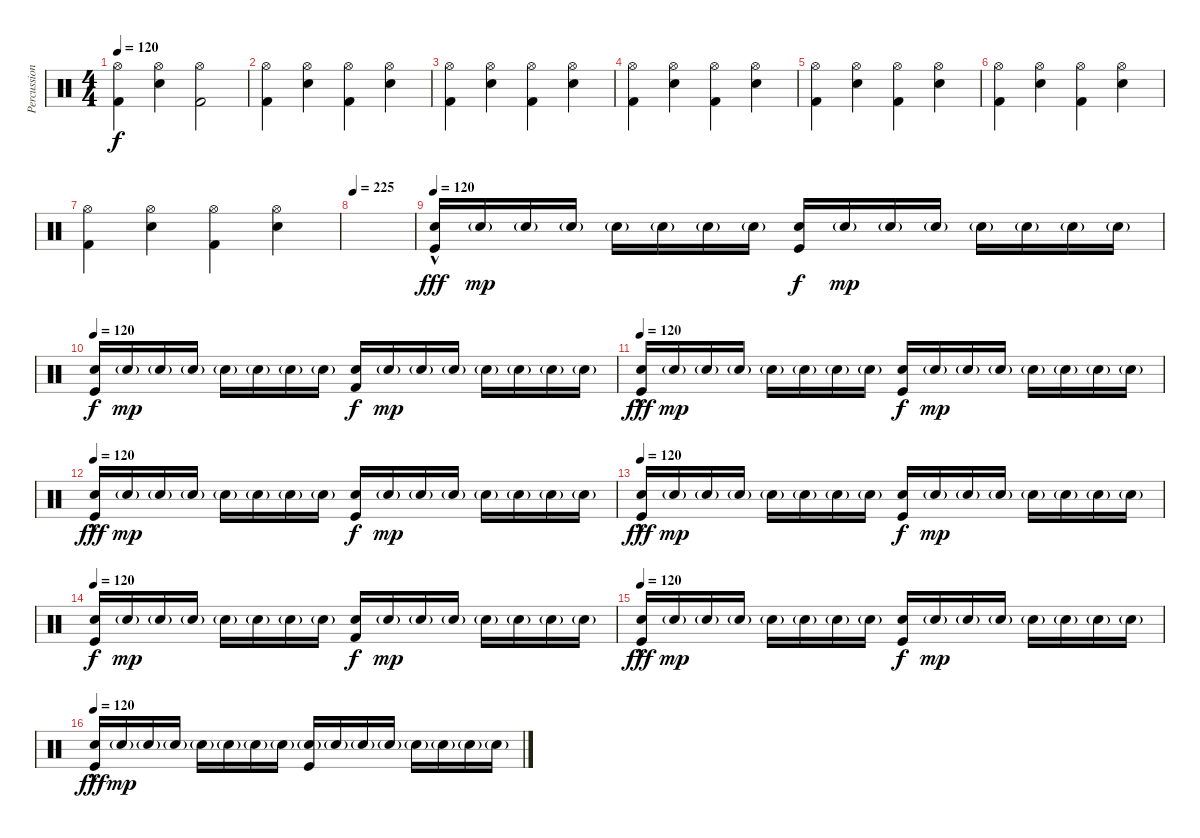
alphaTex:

\track ("Percussion" "Percussion") {instrument percussion}
\staff {score}
\articulation defaults
\ts (4 4)
\tempo 120
\clef neutral
\ks c
("Kick (hit) 2" "Hi-Hat (open)").4{dy f} ("Electric Snare (hit)" "Hi-Hat (open)").4 ("Kick (hit) 2" "Hi-Hat (open)").2 |
("Kick (hit) 2" "Hi-Hat (open)").4 ("Electric Snare (hit)" "Hi-Hat (open)").4 ("Kick (hit) 2" "Hi-Hat (open)").4 ("Electric Snare (hit)" "Hi-Hat (open)").4 |
("Kick (hit) 2" "Hi-Hat (open)").4 ("Electric Snare (hit)" "Hi-Hat (open)").4 ("Kick (hit) 2" "Hi-Hat (open)").4 ("Electric Snare (hit)" "Hi-Hat (open)").4 |
("Kick (hit) 2" "Hi-Hat (open)").4 ("Electric Snare (hit)" "Hi-Hat (open)").4 ("Kick (hit) 2" "Hi-Hat (open)").4 ("Electric Snare (hit)" "Hi-Hat (open)").4 |
("Kick (hit) 2" "Hi-Hat (open)").4 ("Electric Snare (hit)" "Hi-Hat (open)").4 ("Kick (hit) 2" "Hi-Hat (open)").4 ("Electric Snare (hit)" "Hi-Hat (open)").4 |
("Kick (hit) 2" "Hi-Hat (open)").4 ("Electric Snare (hit)" "Hi-Hat (open)").4 ("Kick (hit) 2" "Hi-Hat (open)").4 ("Electric Snare (hit)" "Hi-Hat (open)").4 |
("Kick (hit) 2" "Hi-Hat (open)").4 ("Electric Snare (hit)" "Hi-Hat (open)").4 ("Kick (hit) 2" "Hi-Hat (open)").4 ("Electric Snare (hit)" "Hi-Hat (open)").4 |
\tempo 225
|
\tempo 120
("Electric Snare (hit)"{hac} "Kick (hit)").16{dy fff} "Electric Snare (hit)"{g}.16{dy mp} "Electric Snare (hit)"{g}.16 "Electric Snare (hit)"{g}.16 "Electric Snare (hit)"{g}.16 "Electric Snare (hit)"{g}.16 "Electric Snare (hit)"{g}.16 "Electric Snare (hit)"{g}.16 ("Electric Snare (hit)" "Kick (hit)").16{dy f} "Electric Snare (hit)"{g}.16{dy mp} "Electric Snare (hit)"{g}.16 "Electric Snare (hit)"{g}.16 "Electric Snare (hit)"{g}.16 "Electric Snare (hit)"{g}.16 "Electric Snare (hit)"{g}.16 "Electric Snare (hit)"{g}.16 |
\tempo 120
("Electric Snare (hit)" "Kick (hit)").16{dy f} "Electric Snare (hit)"{g}.16{dy mp} "Electric Snare (hit)"{g}.16 "Electric Snare (hit)"{g}.16 "Electric Snare (hit)"{g}.16 "Electric Snare (hit)"{g}.16 "Electric Snare (hit)"{g}.16 "Electric Snare (hit)"{g}.16 ("Electric Snare (hit)" "Kick (hit) 2").16{dy f} "Electric Snare (hit)"{g}.16{dy mp} "Electric Snare (hit)"{g}.16 "Electric Snare (hit)"{g}.16 "Electric Snare (hit)"{g}.16 "Electric Snare (hit)"{g}.16 "Electric Snare (hit)"{g}.16 "Electric Snare (hit)"{g}.16 |
\tempo 120
("Electric Snare (hit)"{hac} "Kick (hit)").16{dy fff} "Electric Snare (hit)"{g}.16{dy mp} "Electric Snare (hit)"{g}.16 "Electric Snare (hit)"{g}.16 "Electric Snare (hit)"{g}.16 "Electric Snare (hit)"{g}.16 "Electric Snare (hit)"{g}.16 "Electric Snare (hit)"{g}.16 ("Electric Snare (hit)" "Kick (hit)").16{dy f} "Electric Snare (hit)"{g}.16{dy mp} "Electric Snare (hit)"{g}.16 "Electric Snare (hit)"{g}.16 "Electric Snare (hit)"{g}.16 "Electric Snare (hit)"{g}.16 "Electric Snare (hit)"{g}.16 "Electric Snare (hit)"{g}.16 |
\tempo 120
("Electric Snare (hit)"{hac} "Kick (hit)").16{dy fff} "Electric Snare (hit)"{g}.16{dy mp} "Electric Snare (hit)"{g}.16 "Electric Snare (hit)"{g}.16 "Electric Snare (hit)"{g}.16 "Electric Snare (hit)"{g}.16 "Electric Snare (hit)"{g}.16 "Electric Snare (hit)"{g}.16 ("Electric Snare (hit)" "Kick (hit)").16{dy f} "Electric Snare (hit)"{g}.16{dy mp} "Electric Snare (hit)"{g}.16 "Electric Snare (hit)"{g}.16 "Electric Snare (hit)"{g}.16 "Electric Snare (hit)"{g}.16 "Electric Snare (hit)"{g}.16 "Electric Snare (hit)"{g}.16 |
\tempo 120
("Electric Snare (hit)"{hac} "Kick (hit)").16{dy fff} "Electric Snare (hit)"{g}.16{dy mp} "Electric Snare (hit)"{g}.16 "Electric Snare (hit)"{g}.16 "Electric Snare (hit)"{g}.16 "Electric Snare (hit)"{g}.16 "Electric Snare (hit)"{g}.16 "Electric Snare (hit)"{g}.16 ("Electric Snare (hit)" "Kick (hit)").16{dy f} "Electric Snare (hit)"{g}.16{dy mp} "Electric Snare (hit)"{g}.16 "Electric Snare (hit)"{g}.16 "Electric Snare (hit)"{g}.16 "Electric Snare (hit)"{g}.16 "Electric Snare (hit)"{g}.16 "Electric Snare (hit)"{g}.16 |
\tempo 120
("Electric Snare (hit)" "Kick (hit)").16{dy f} "Electric Snare (hit)"{g}.16{dy mp} "Electric Snare (hit)"{g}.16 "Electric Snare (hit)"{g}.16 "Electric Snare (hit)"{g}.16 "Electric Snare (hit)"{g}.16 "Electric Snare (hit)"{g}.16 "Electric Snare (hit)"{g}.16 ("Electric Snare (hit)" "Kick (hit) 2").16{dy f} "Electric Snare (hit)"{g}.16{dy mp} "Electric Snare (hit)"{g}.16 "Electric Snare (hit)"{g}.16 "Electric Snare (hit)"{g}.16 "Electric Snare (hit)"{g}.16 "Electric Snare (hit)"{g}.16 "Electric Snare (hit)"{g}.16 |
\tempo 120
("Electric Snare (hit)"{hac} "Kick (hit)").16{dy fff} "Electric Snare (hit)"{g}.16{dy mp} "Electric Snare (hit)"{g}.16 "Electric Snare (hit)"{g}.16 "Electric Snare (hit)"{g}.16 "Electric Snare (hit)"{g}.16 "Electric Snare (hit)"{g}.16 "Electric Snare (hit)"{g}.16 ("Electric Snare (hit)" "Kick (hit)").16{dy f} "Electric Snare (hit)"{g}.16{dy mp} "Electric Snare (hit)"{g}.16 "Electric Snare (hit)"{g}.16 "Electric Snare (hit)"{g}.16 "Electric Snare (hit)"{g}.16 "Electric Snare (hit)"{g}.16 "Electric Snare (hit)"{g}.16 |
\tempo 120
("Electric Snare (hit)"{hac} "Kick (hit)").16{dy fff} "Electric Snare (hit)"{g}.16{dy mp} "Electric Snare (hit)"{g}.16 "Electric Snare (hit)"{g}.16 "Electric Snare (hit)"{g}.16 "Electric Snare (hit)"{g}.16 "Electric Snare (hit)"{g}.16 "Electric Snare (hit)"{g}.16 ("Electric Snare (hit)"{g} "Kick (hit)").16 "Electric Snare (hit)"{g}.16 "Electric Snare (hit)"{g}.16 "Electric Snare (hit)"{g}.16 "Electric Snare (hit)"{g}.16 "Electric Snare (hit)"{g}.16 "Electric Snare (hit)"{g}.16 "Electric Snare (hit)"{g}.16
